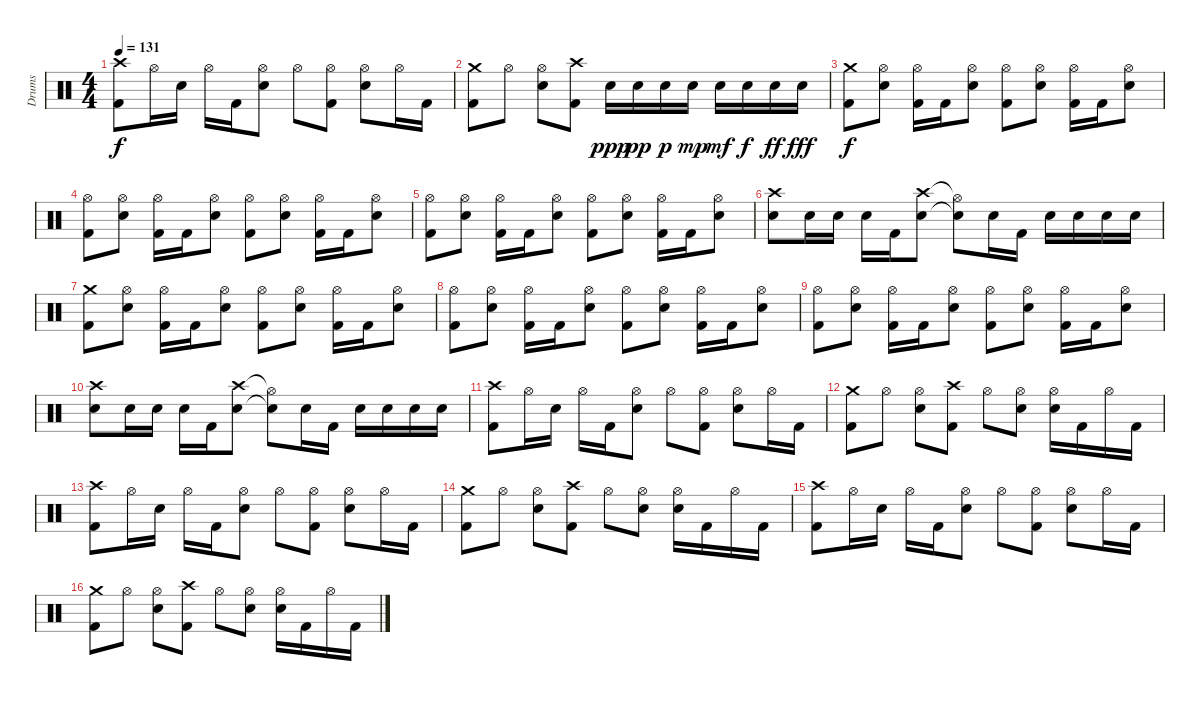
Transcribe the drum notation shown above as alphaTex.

\track ("Drums" "Drums") {instrument percussion}
\staff {score}
\articulation defaults
\ts (4 4)
\tempo 131
\clef neutral
\ks c
("Crash high (hit)" "Kick (hit) 2").8{dy f} "Hi-Hat (open)".16 "Electric Snare (hit)".16 "Hi-Hat (open)".16 "Kick (hit) 2".16 ("Hi-Hat (open)" "Electric Snare (hit)").8 "Hi-Hat (open)".8 ("Hi-Hat (open)" "Kick (hit) 2").8 ("Hi-Hat (open)" "Electric Snare (hit)").8 "Hi-Hat (open)".16 "Kick (hit) 2".16 |
("Crash medium (hit)" "Kick (hit) 2").8 "Hi-Hat (open)".8 ("Hi-Hat (open)" "Electric Snare (hit)").8 ("Crash high (hit)" "Kick (hit) 2").8 "Electric Snare (hit)".16{dy ppp} "Electric Snare (hit)".16{dy pp} "Electric Snare (hit)".16{dy p} "Electric Snare (hit)".16{dy mp} "Electric Snare (hit)".16{dy mf} "Electric Snare (hit)".16{dy f} "Electric Snare (hit)".16{dy ff} "Electric Snare (hit)".16{dy fff} |
("Crash medium (hit)" "Kick (hit) 2").8{dy f} ("Hi-Hat (open)" "Electric Snare (hit)").8 ("Hi-Hat (open)" "Kick (hit) 2").16 "Kick (hit) 2".16 ("Hi-Hat (open)" "Electric Snare (hit)").8 ("Hi-Hat (open)" "Kick (hit) 2").8 ("Hi-Hat (open)" "Electric Snare (hit)").8 ("Hi-Hat (open)" "Kick (hit) 2").16 "Kick (hit) 2".16 ("Hi-Hat (open)" "Electric Snare (hit)").8 |
("Hi-Hat (open)" "Kick (hit) 2").8 ("Hi-Hat (open)" "Electric Snare (hit)").8 ("Hi-Hat (open)" "Kick (hit) 2").16 "Kick (hit) 2".16 ("Hi-Hat (open)" "Electric Snare (hit)").8 ("Hi-Hat (open)" "Kick (hit) 2").8 ("Hi-Hat (open)" "Electric Snare (hit)").8 ("Hi-Hat (open)" "Kick (hit) 2").16 "Kick (hit) 2".16 ("Hi-Hat (open)" "Electric Snare (hit)").8 |
("Hi-Hat (open)" "Kick (hit) 2").8 ("Hi-Hat (open)" "Electric Snare (hit)").8 ("Hi-Hat (open)" "Kick (hit) 2").16 "Kick (hit) 2".16 ("Hi-Hat (open)" "Electric Snare (hit)").8 ("Hi-Hat (open)" "Kick (hit) 2").8 ("Hi-Hat (open)" "Electric Snare (hit)").8 ("Hi-Hat (open)" "Kick (hit) 2").16 "Kick (hit) 2".16 ("Hi-Hat (open)" "Electric Snare (hit)").8 |
("Crash high (hit)" "Electric Snare (hit)").8 "Electric Snare (hit)".16 "Electric Snare (hit)".16 "Electric Snare (hit)".16 "Kick (hit) 2".16 ("Crash high (hit)" "Electric Snare (hit)").8 ("Hi-Hat (open)"{t} "Snare (hit)"{t}).8 "Electric Snare (hit)".16 "Kick (hit) 2".16 "Electric Snare (hit)".16 "Electric Snare (hit)".16 "Electric Snare (hit)".16 "Electric Snare (hit)".16 |
("Crash medium (hit)" "Kick (hit) 2").8 ("Hi-Hat (open)" "Electric Snare (hit)").8 ("Hi-Hat (open)" "Kick (hit) 2").16 "Kick (hit) 2".16 ("Hi-Hat (open)" "Electric Snare (hit)").8 ("Hi-Hat (open)" "Kick (hit) 2").8 ("Hi-Hat (open)" "Electric Snare (hit)").8 ("Hi-Hat (open)" "Kick (hit) 2").16 "Kick (hit) 2".16 ("Hi-Hat (open)" "Electric Snare (hit)").8 |
("Hi-Hat (open)" "Kick (hit) 2").8 ("Hi-Hat (open)" "Electric Snare (hit)").8 ("Hi-Hat (open)" "Kick (hit) 2").16 "Kick (hit) 2".16 ("Hi-Hat (open)" "Electric Snare (hit)").8 ("Hi-Hat (open)" "Kick (hit) 2").8 ("Hi-Hat (open)" "Electric Snare (hit)").8 ("Hi-Hat (open)" "Kick (hit) 2").16 "Kick (hit) 2".16 ("Hi-Hat (open)" "Electric Snare (hit)").8 |
("Hi-Hat (open)" "Kick (hit) 2").8 ("Hi-Hat (open)" "Electric Snare (hit)").8 ("Hi-Hat (open)" "Kick (hit) 2").16 "Kick (hit) 2".16 ("Hi-Hat (open)" "Electric Snare (hit)").8 ("Hi-Hat (open)" "Kick (hit) 2").8 ("Hi-Hat (open)" "Electric Snare (hit)").8 ("Hi-Hat (open)" "Kick (hit) 2").16 "Kick (hit) 2".16 ("Hi-Hat (open)" "Electric Snare (hit)").8 |
("Crash high (hit)" "Electric Snare (hit)").8 "Electric Snare (hit)".16 "Electric Snare (hit)".16 "Electric Snare (hit)".16 "Kick (hit) 2".16 ("Crash high (hit)" "Electric Snare (hit)").8 ("Hi-Hat (open)"{t} "Snare (hit)"{t}).8 "Electric Snare (hit)".16 "Kick (hit) 2".16 "Electric Snare (hit)".16 "Electric Snare (hit)".16 "Electric Snare (hit)".16 "Electric Snare (hit)".16 |
("Crash high (hit)" "Kick (hit) 2").8 "Hi-Hat (open)".16 "Electric Snare (hit)".16 "Hi-Hat (open)".16 "Kick (hit) 2".16 ("Hi-Hat (open)" "Electric Snare (hit)").8 "Hi-Hat (open)".8 ("Hi-Hat (open)" "Kick (hit) 2").8 ("Hi-Hat (open)" "Electric Snare (hit)").8 "Hi-Hat (open)".16 "Kick (hit) 2".16 |
("Crash medium (hit)" "Kick (hit) 2").8 "Hi-Hat (open)".8 ("Hi-Hat (open)" "Electric Snare (hit)").8 ("Crash high (hit)" "Kick (hit) 2").8 "Hi-Hat (open)".8 ("Hi-Hat (open)" "Electric Snare (hit)").8 ("Hi-Hat (open)" "Electric Snare (hit)").16 "Kick (hit) 2".16 "Hi-Hat (open)".16 "Kick (hit) 2".16 |
("Crash high (hit)" "Kick (hit) 2").8 "Hi-Hat (open)".16 "Electric Snare (hit)".16 "Hi-Hat (open)".16 "Kick (hit) 2".16 ("Hi-Hat (open)" "Electric Snare (hit)").8 "Hi-Hat (open)".8 ("Hi-Hat (open)" "Kick (hit) 2").8 ("Hi-Hat (open)" "Electric Snare (hit)").8 "Hi-Hat (open)".16 "Kick (hit) 2".16 |
("Crash medium (hit)" "Kick (hit) 2").8 "Hi-Hat (open)".8 ("Hi-Hat (open)" "Electric Snare (hit)").8 ("Crash high (hit)" "Kick (hit) 2").8 "Hi-Hat (open)".8 ("Hi-Hat (open)" "Electric Snare (hit)").8 ("Hi-Hat (open)" "Electric Snare (hit)").16 "Kick (hit) 2".16 "Hi-Hat (open)".16 "Kick (hit) 2".16 |
("Crash high (hit)" "Kick (hit) 2").8 "Hi-Hat (open)".16 "Electric Snare (hit)".16 "Hi-Hat (open)".16 "Kick (hit) 2".16 ("Hi-Hat (open)" "Electric Snare (hit)").8 "Hi-Hat (open)".8 ("Hi-Hat (open)" "Kick (hit) 2").8 ("Hi-Hat (open)" "Electric Snare (hit)").8 "Hi-Hat (open)".16 "Kick (hit) 2".16 |
("Crash medium (hit)" "Kick (hit) 2").8 "Hi-Hat (open)".8 ("Hi-Hat (open)" "Electric Snare (hit)").8 ("Crash high (hit)" "Kick (hit) 2").8 "Hi-Hat (open)".8 ("Hi-Hat (open)" "Electric Snare (hit)").8 ("Hi-Hat (open)" "Electric Snare (hit)").16 "Kick (hit) 2".16 "Hi-Hat (open)".16 "Kick (hit) 2".16
